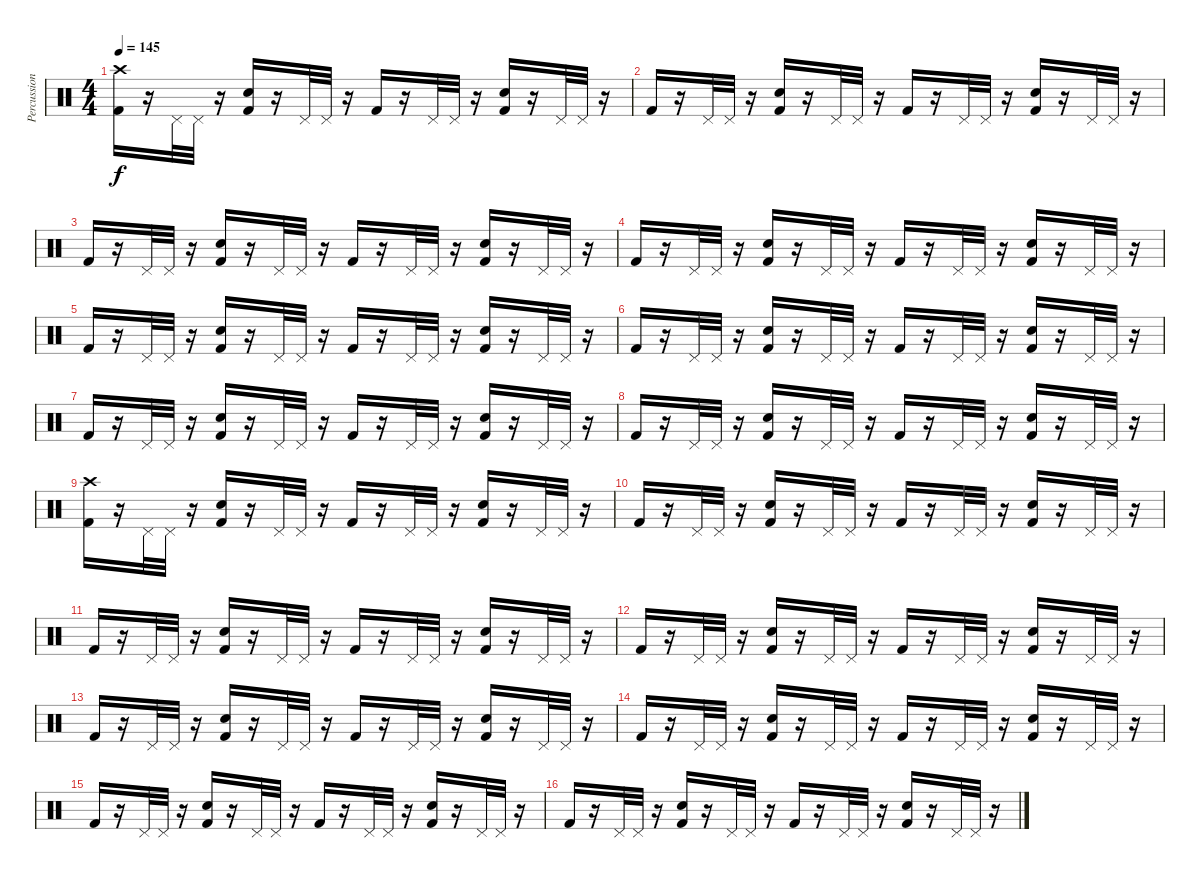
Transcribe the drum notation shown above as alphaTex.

\track ("Percussions" "Percussion") {instrument percussion}
\staff {score}
\articulation defaults
\ts (4 4)
\tempo 145
\clef neutral
\ks c
("Kick (hit) 2" "Crash high (hit)").16{dy f} r.16 "Pedal Hi-Hat (hit)".32 "Pedal Hi-Hat (hit)".32 r.16 ("Kick (hit) 2" "Electric Snare (hit)").16 r.16 "Pedal Hi-Hat (hit)".32 "Pedal Hi-Hat (hit)".32 r.16 "Kick (hit) 2".16 r.16 "Pedal Hi-Hat (hit)".32 "Pedal Hi-Hat (hit)".32 r.16 ("Kick (hit) 2" "Electric Snare (hit)").16 r.16 "Pedal Hi-Hat (hit)".32 "Pedal Hi-Hat (hit)".32 r.16 |
"Kick (hit) 2".16 r.16 "Pedal Hi-Hat (hit)".32 "Pedal Hi-Hat (hit)".32 r.16 ("Kick (hit) 2" "Electric Snare (hit)").16 r.16 "Pedal Hi-Hat (hit)".32 "Pedal Hi-Hat (hit)".32 r.16 "Kick (hit) 2".16 r.16 "Pedal Hi-Hat (hit)".32 "Pedal Hi-Hat (hit)".32 r.16 ("Kick (hit) 2" "Electric Snare (hit)").16 r.16 "Pedal Hi-Hat (hit)".32 "Pedal Hi-Hat (hit)".32 r.16 |
"Kick (hit) 2".16 r.16 "Pedal Hi-Hat (hit)".32 "Pedal Hi-Hat (hit)".32 r.16 ("Kick (hit) 2" "Electric Snare (hit)").16 r.16 "Pedal Hi-Hat (hit)".32 "Pedal Hi-Hat (hit)".32 r.16 "Kick (hit) 2".16 r.16 "Pedal Hi-Hat (hit)".32 "Pedal Hi-Hat (hit)".32 r.16 ("Kick (hit) 2" "Electric Snare (hit)").16 r.16 "Pedal Hi-Hat (hit)".32 "Pedal Hi-Hat (hit)".32 r.16 |
"Kick (hit) 2".16 r.16 "Pedal Hi-Hat (hit)".32 "Pedal Hi-Hat (hit)".32 r.16 ("Kick (hit) 2" "Electric Snare (hit)").16 r.16 "Pedal Hi-Hat (hit)".32 "Pedal Hi-Hat (hit)".32 r.16 "Kick (hit) 2".16 r.16 "Pedal Hi-Hat (hit)".32 "Pedal Hi-Hat (hit)".32 r.16 ("Kick (hit) 2" "Electric Snare (hit)").16 r.16 "Pedal Hi-Hat (hit)".32 "Pedal Hi-Hat (hit)".32 r.16 |
"Kick (hit) 2".16 r.16 "Pedal Hi-Hat (hit)".32 "Pedal Hi-Hat (hit)".32 r.16 ("Kick (hit) 2" "Electric Snare (hit)").16 r.16 "Pedal Hi-Hat (hit)".32 "Pedal Hi-Hat (hit)".32 r.16 "Kick (hit) 2".16 r.16 "Pedal Hi-Hat (hit)".32 "Pedal Hi-Hat (hit)".32 r.16 ("Kick (hit) 2" "Electric Snare (hit)").16 r.16 "Pedal Hi-Hat (hit)".32 "Pedal Hi-Hat (hit)".32 r.16 |
"Kick (hit) 2".16 r.16 "Pedal Hi-Hat (hit)".32 "Pedal Hi-Hat (hit)".32 r.16 ("Kick (hit) 2" "Electric Snare (hit)").16 r.16 "Pedal Hi-Hat (hit)".32 "Pedal Hi-Hat (hit)".32 r.16 "Kick (hit) 2".16 r.16 "Pedal Hi-Hat (hit)".32 "Pedal Hi-Hat (hit)".32 r.16 ("Kick (hit) 2" "Electric Snare (hit)").16 r.16 "Pedal Hi-Hat (hit)".32 "Pedal Hi-Hat (hit)".32 r.16 |
"Kick (hit) 2".16 r.16 "Pedal Hi-Hat (hit)".32 "Pedal Hi-Hat (hit)".32 r.16 ("Kick (hit) 2" "Electric Snare (hit)").16 r.16 "Pedal Hi-Hat (hit)".32 "Pedal Hi-Hat (hit)".32 r.16 "Kick (hit) 2".16 r.16 "Pedal Hi-Hat (hit)".32 "Pedal Hi-Hat (hit)".32 r.16 ("Kick (hit) 2" "Electric Snare (hit)").16 r.16 "Pedal Hi-Hat (hit)".32 "Pedal Hi-Hat (hit)".32 r.16 |
"Kick (hit) 2".16 r.16 "Pedal Hi-Hat (hit)".32 "Pedal Hi-Hat (hit)".32 r.16 ("Kick (hit) 2" "Electric Snare (hit)").16 r.16 "Pedal Hi-Hat (hit)".32 "Pedal Hi-Hat (hit)".32 r.16 "Kick (hit) 2".16 r.16 "Pedal Hi-Hat (hit)".32 "Pedal Hi-Hat (hit)".32 r.16 ("Kick (hit) 2" "Electric Snare (hit)").16 r.16 "Pedal Hi-Hat (hit)".32 "Pedal Hi-Hat (hit)".32 r.16 |
("Kick (hit) 2" "Crash high (hit)").16 r.16 "Pedal Hi-Hat (hit)".32 "Pedal Hi-Hat (hit)".32 r.16 ("Kick (hit) 2" "Electric Snare (hit)").16 r.16 "Pedal Hi-Hat (hit)".32 "Pedal Hi-Hat (hit)".32 r.16 "Kick (hit) 2".16 r.16 "Pedal Hi-Hat (hit)".32 "Pedal Hi-Hat (hit)".32 r.16 ("Kick (hit) 2" "Electric Snare (hit)").16 r.16 "Pedal Hi-Hat (hit)".32 "Pedal Hi-Hat (hit)".32 r.16 |
"Kick (hit) 2".16 r.16 "Pedal Hi-Hat (hit)".32 "Pedal Hi-Hat (hit)".32 r.16 ("Kick (hit) 2" "Electric Snare (hit)").16 r.16 "Pedal Hi-Hat (hit)".32 "Pedal Hi-Hat (hit)".32 r.16 "Kick (hit) 2".16 r.16 "Pedal Hi-Hat (hit)".32 "Pedal Hi-Hat (hit)".32 r.16 ("Kick (hit) 2" "Electric Snare (hit)").16 r.16 "Pedal Hi-Hat (hit)".32 "Pedal Hi-Hat (hit)".32 r.16 |
"Kick (hit) 2".16 r.16 "Pedal Hi-Hat (hit)".32 "Pedal Hi-Hat (hit)".32 r.16 ("Kick (hit) 2" "Electric Snare (hit)").16 r.16 "Pedal Hi-Hat (hit)".32 "Pedal Hi-Hat (hit)".32 r.16 "Kick (hit) 2".16 r.16 "Pedal Hi-Hat (hit)".32 "Pedal Hi-Hat (hit)".32 r.16 ("Kick (hit) 2" "Electric Snare (hit)").16 r.16 "Pedal Hi-Hat (hit)".32 "Pedal Hi-Hat (hit)".32 r.16 |
"Kick (hit) 2".16 r.16 "Pedal Hi-Hat (hit)".32 "Pedal Hi-Hat (hit)".32 r.16 ("Kick (hit) 2" "Electric Snare (hit)").16 r.16 "Pedal Hi-Hat (hit)".32 "Pedal Hi-Hat (hit)".32 r.16 "Kick (hit) 2".16 r.16 "Pedal Hi-Hat (hit)".32 "Pedal Hi-Hat (hit)".32 r.16 ("Kick (hit) 2" "Electric Snare (hit)").16 r.16 "Pedal Hi-Hat (hit)".32 "Pedal Hi-Hat (hit)".32 r.16 |
"Kick (hit) 2".16 r.16 "Pedal Hi-Hat (hit)".32 "Pedal Hi-Hat (hit)".32 r.16 ("Kick (hit) 2" "Electric Snare (hit)").16 r.16 "Pedal Hi-Hat (hit)".32 "Pedal Hi-Hat (hit)".32 r.16 "Kick (hit) 2".16 r.16 "Pedal Hi-Hat (hit)".32 "Pedal Hi-Hat (hit)".32 r.16 ("Kick (hit) 2" "Electric Snare (hit)").16 r.16 "Pedal Hi-Hat (hit)".32 "Pedal Hi-Hat (hit)".32 r.16 |
"Kick (hit) 2".16 r.16 "Pedal Hi-Hat (hit)".32 "Pedal Hi-Hat (hit)".32 r.16 ("Kick (hit) 2" "Electric Snare (hit)").16 r.16 "Pedal Hi-Hat (hit)".32 "Pedal Hi-Hat (hit)".32 r.16 "Kick (hit) 2".16 r.16 "Pedal Hi-Hat (hit)".32 "Pedal Hi-Hat (hit)".32 r.16 ("Kick (hit) 2" "Electric Snare (hit)").16 r.16 "Pedal Hi-Hat (hit)".32 "Pedal Hi-Hat (hit)".32 r.16 |
"Kick (hit) 2".16 r.16 "Pedal Hi-Hat (hit)".32 "Pedal Hi-Hat (hit)".32 r.16 ("Kick (hit) 2" "Electric Snare (hit)").16 r.16 "Pedal Hi-Hat (hit)".32 "Pedal Hi-Hat (hit)".32 r.16 "Kick (hit) 2".16 r.16 "Pedal Hi-Hat (hit)".32 "Pedal Hi-Hat (hit)".32 r.16 ("Kick (hit) 2" "Electric Snare (hit)").16 r.16 "Pedal Hi-Hat (hit)".32 "Pedal Hi-Hat (hit)".32 r.16 |
"Kick (hit) 2".16 r.16 "Pedal Hi-Hat (hit)".32 "Pedal Hi-Hat (hit)".32 r.16 ("Kick (hit) 2" "Electric Snare (hit)").16 r.16 "Pedal Hi-Hat (hit)".32 "Pedal Hi-Hat (hit)".32 r.16 "Kick (hit) 2".16 r.16 "Pedal Hi-Hat (hit)".32 "Pedal Hi-Hat (hit)".32 r.16 ("Kick (hit) 2" "Electric Snare (hit)").16 r.16 "Pedal Hi-Hat (hit)".32 "Pedal Hi-Hat (hit)".32 r.16
